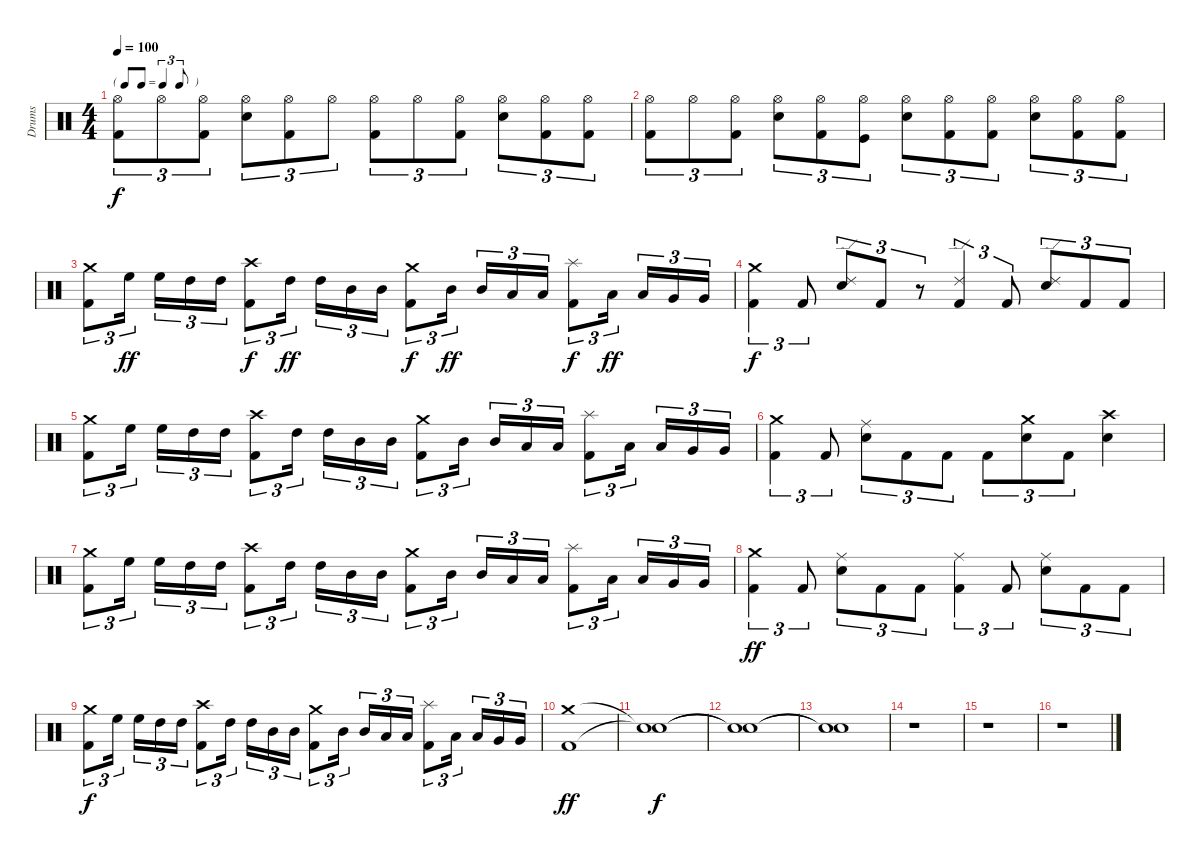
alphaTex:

\track ("Drums" "Drums") {instrument percussion}
\staff {score}
\articulation defaults
\ts (4 4)
\tf triplet8th
\tempo 100
\clef neutral
\ks c
("Hi-Hat (open)" "Kick (hit) 2").8{tu (3 2) dy f} "Hi-Hat (open)".8{tu (3 2)} ("Hi-Hat (open)" "Kick (hit) 2").8{tu (3 2)} ("Hi-Hat (open)" "Snare (hit) 2").8{tu (3 2)} ("Hi-Hat (open)" "Kick (hit) 2").8{tu (3 2)} "Hi-Hat (open)".8{tu (3 2)} ("Hi-Hat (open)" "Kick (hit) 2").8{tu (3 2)} "Hi-Hat (open)".8{tu (3 2)} ("Hi-Hat (open)" "Kick (hit) 2").8{tu (3 2)} ("Hi-Hat (open)" "Snare (hit) 2").8{tu (3 2)} ("Hi-Hat (open)" "Kick (hit) 2").8{tu (3 2)} ("Hi-Hat (open)" "Kick (hit) 2").8{tu (3 2)} |
("Hi-Hat (open)" "Kick (hit) 2").8{tu (3 2)} "Hi-Hat (open)".8{tu (3 2)} ("Hi-Hat (open)" "Kick (hit) 2").8{tu (3 2)} ("Hi-Hat (open)" "Snare (hit) 2").8{tu (3 2)} ("Hi-Hat (open)" "Kick (hit) 2").8{tu (3 2)} ("Hi-Hat (open)" "Kick (hit)").8{tu (3 2)} ("Hi-Hat (open)" "Snare (hit) 2").8{tu (3 2)} ("Hi-Hat (open)" "Kick (hit) 2").8{tu (3 2)} ("Hi-Hat (open)" "Kick (hit) 2").8{tu (3 2)} ("Hi-Hat (open)" "Snare (hit) 2").8{tu (3 2)} ("Hi-Hat (open)" "Kick (hit) 2").8{tu (3 2)} ("Hi-Hat (open)" "Kick (hit) 2").8{tu (3 2)} |
("Crash medium (hit)" "Kick (hit) 2").8{tu (3 2)} "High Floor Tom (hit)".16{tu (3 2) dy ff beam splitsecondary} "High Floor Tom (hit)".16{tu (3 2)} "High Tom (hit)".16{tu (3 2)} "High Tom (hit)".16{tu (3 2)} ("Crash high (hit)" "Kick (hit) 2").8{tu (3 2) dy f} "High Tom (hit)".16{tu (3 2) dy ff beam splitsecondary} "High Tom (hit)".16{tu (3 2)} "Mid Tom (hit)".16{tu (3 2)} "Mid Tom (hit)".16{tu (3 2)} ("Crash medium (hit)" "Kick (hit) 2").8{tu (3 2) dy f} "Mid Tom (hit)".16{tu (3 2) dy ff beam splitsecondary} "Mid Tom (hit)".16{tu (3 2)} "Low Tom (hit)".16{tu (3 2)} "Low Tom (hit)".16{tu (3 2)} ("Splash (hit)" "Kick (hit) 2").8{tu (3 2) dy f} "Low Tom (hit)".16{tu (3 2) dy ff beam splitsecondary} "Low Tom (hit)".16{tu (3 2)} "Very Low Tom (hit)".16{tu (3 2)} "Very Low Tom (hit)".16{tu (3 2)} |
("Crash medium (hit)" "Kick (hit) 2").4{tu (3 2) dy f} "Kick (hit) 2".8{tu (3 2)} ("Ride (edge) 2" "Snare (hit) 2").8{tu (3 2)} "Kick (hit) 2".8{tu (3 2)} r.8{tu (3 2)} ("Ride (edge) 2" "Kick (hit) 2").4{tu (3 2)} "Kick (hit) 2".8{tu (3 2)} ("Ride (edge) 2" "Snare (hit) 2").8{tu (3 2)} "Kick (hit) 2".8{tu (3 2)} "Kick (hit) 2".8{tu (3 2)} |
("Crash medium (hit)" "Kick (hit) 2").8{tu (3 2)} "High Floor Tom (hit)".16{tu (3 2) beam splitsecondary} "High Floor Tom (hit)".16{tu (3 2)} "High Tom (hit)".16{tu (3 2)} "High Tom (hit)".16{tu (3 2)} ("Crash high (hit)" "Kick (hit) 2").8{tu (3 2)} "High Tom (hit)".16{tu (3 2) beam splitsecondary} "High Tom (hit)".16{tu (3 2)} "Mid Tom (hit)".16{tu (3 2)} "Mid Tom (hit)".16{tu (3 2)} ("Crash medium (hit)" "Kick (hit) 2").8{tu (3 2)} "Mid Tom (hit)".16{tu (3 2) beam splitsecondary} "Mid Tom (hit)".16{tu (3 2)} "Low Tom (hit)".16{tu (3 2)} "Low Tom (hit)".16{tu (3 2)} ("Splash (hit)" "Kick (hit) 2").8{tu (3 2)} "Low Tom (hit)".16{tu (3 2) beam splitsecondary} "Low Tom (hit)".16{tu (3 2)} "Very Low Tom (hit)".16{tu (3 2)} "Very Low Tom (hit)".16{tu (3 2)} |
("Crash medium (hit)" "Kick (hit) 2").4{tu (3 2)} "Kick (hit) 2".8{tu (3 2)} ("Ride (middle)" "Snare (hit) 2").8{tu (3 2)} "Kick (hit) 2".8{tu (3 2)} "Kick (hit) 2".8{tu (3 2)} "Kick (hit) 2".8{tu (3 2)} ("Crash medium (hit)" "Snare (hit) 2").8{tu (3 2)} "Kick (hit) 2".8{tu (3 2)} ("Crash high (hit)" "Snare (hit) 2").4 |
("Crash medium (hit)" "Kick (hit) 2").8{tu (3 2)} "High Floor Tom (hit)".16{tu (3 2) beam splitsecondary} "High Floor Tom (hit)".16{tu (3 2)} "High Tom (hit)".16{tu (3 2)} "High Tom (hit)".16{tu (3 2)} ("Crash high (hit)" "Kick (hit) 2").8{tu (3 2)} "High Tom (hit)".16{tu (3 2) beam splitsecondary} "High Tom (hit)".16{tu (3 2)} "Mid Tom (hit)".16{tu (3 2)} "Mid Tom (hit)".16{tu (3 2)} ("Crash medium (hit)" "Kick (hit) 2").8{tu (3 2)} "Mid Tom (hit)".16{tu (3 2) beam splitsecondary} "Mid Tom (hit)".16{tu (3 2)} "Low Tom (hit)".16{tu (3 2)} "Low Tom (hit)".16{tu (3 2)} ("Splash (hit)" "Kick (hit) 2").8{tu (3 2)} "Low Tom (hit)".16{tu (3 2) beam splitsecondary} "Low Tom (hit)".16{tu (3 2)} "Very Low Tom (hit)".16{tu (3 2)} "Very Low Tom (hit)".16{tu (3 2)} |
("Crash medium (hit)" "Kick (hit) 2").4{tu (3 2) dy ff} "Kick (hit) 2".8{tu (3 2)} ("Ride (middle)" "Snare (hit) 2").8{tu (3 2)} "Kick (hit) 2".8{tu (3 2)} "Kick (hit) 2".8{tu (3 2)} ("Ride (middle)" "Kick (hit) 2").4{tu (3 2)} "Kick (hit) 2".8{tu (3 2)} ("Ride (middle)" "Snare (hit) 2").8{tu (3 2)} "Kick (hit) 2".8{tu (3 2)} "Kick (hit) 2".8{tu (3 2)} |
("Crash medium (hit)" "Kick (hit) 2").8{tu (3 2) dy f} "High Floor Tom (hit)".16{tu (3 2) beam splitsecondary} "High Floor Tom (hit)".16{tu (3 2)} "High Tom (hit)".16{tu (3 2)} "High Tom (hit)".16{tu (3 2)} ("Crash high (hit)" "Kick (hit) 2").8{tu (3 2)} "High Tom (hit)".16{tu (3 2) beam splitsecondary} "High Tom (hit)".16{tu (3 2)} "Mid Tom (hit)".16{tu (3 2)} "Mid Tom (hit)".16{tu (3 2)} ("Crash medium (hit)" "Kick (hit) 2").8{tu (3 2)} "Mid Tom (hit)".16{tu (3 2) beam splitsecondary} "Mid Tom (hit)".16{tu (3 2)} "Low Tom (hit)".16{tu (3 2)} "Low Tom (hit)".16{tu (3 2)} ("Splash (hit)" "Kick (hit) 2").8{tu (3 2)} "Low Tom (hit)".16{tu (3 2) beam splitsecondary} "Low Tom (hit)".16{tu (3 2)} "Very Low Tom (hit)".16{tu (3 2)} "Very Low Tom (hit)".16{tu (3 2)} |
("Crash medium (hit)" "Kick (hit) 2").1{dy ff} |
("Snare (hit)"{t} "Snare (hit)"{t}).1{dy f} |
("Snare (hit)"{t} "Snare (hit)"{t}).1 |
("Snare (hit)"{t} "Snare (hit)"{t}).1 |
r.1 |
r.1 |
r.1
